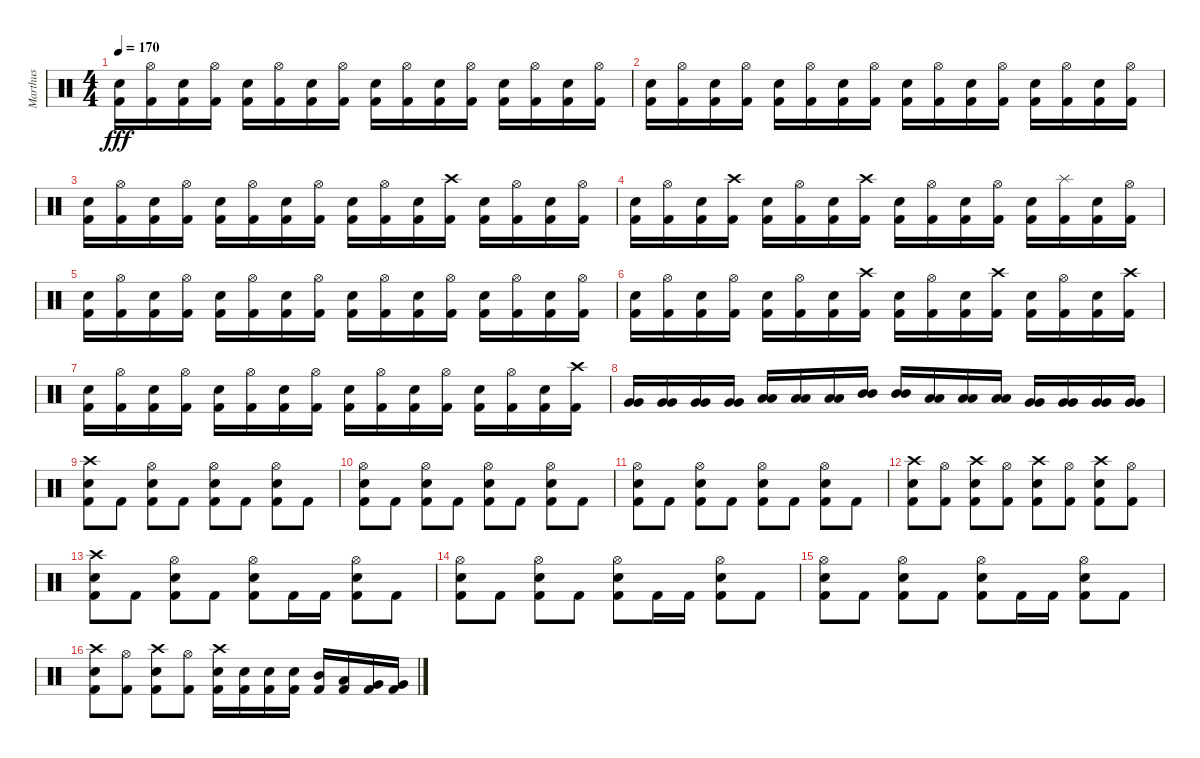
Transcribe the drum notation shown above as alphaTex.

\track ("Marthus" "Marthus") {instrument percussion}
\staff {score}
\articulation defaults
\ts (4 4)
\tempo 170
\clef neutral
\ks c
("Electric Snare (hit)" "Kick (hit) 2").16{dy fff} ("Hi-Hat (open)" "Kick (hit) 2").16 ("Electric Snare (hit)" "Kick (hit) 2").16 ("Hi-Hat (open)" "Kick (hit) 2").16 ("Electric Snare (hit)" "Kick (hit) 2").16 ("Hi-Hat (open)" "Kick (hit) 2").16 ("Electric Snare (hit)" "Kick (hit) 2").16 ("Hi-Hat (open)" "Kick (hit) 2").16 ("Electric Snare (hit)" "Kick (hit) 2").16 ("Hi-Hat (open)" "Kick (hit) 2").16 ("Electric Snare (hit)" "Kick (hit) 2").16 ("Hi-Hat (open)" "Kick (hit) 2").16 ("Electric Snare (hit)" "Kick (hit) 2").16 ("Hi-Hat (open)" "Kick (hit) 2").16 ("Electric Snare (hit)" "Kick (hit) 2").16 ("Hi-Hat (open)" "Kick (hit) 2").16 |
("Electric Snare (hit)" "Kick (hit) 2").16 ("Hi-Hat (open)" "Kick (hit) 2").16 ("Electric Snare (hit)" "Kick (hit) 2").16 ("Hi-Hat (open)" "Kick (hit) 2").16 ("Electric Snare (hit)" "Kick (hit) 2").16 ("Hi-Hat (open)" "Kick (hit) 2").16 ("Electric Snare (hit)" "Kick (hit) 2").16 ("Hi-Hat (open)" "Kick (hit) 2").16 ("Electric Snare (hit)" "Kick (hit) 2").16 ("Hi-Hat (open)" "Kick (hit) 2").16 ("Electric Snare (hit)" "Kick (hit) 2").16 ("Hi-Hat (open)" "Kick (hit) 2").16 ("Electric Snare (hit)" "Kick (hit) 2").16 ("Hi-Hat (open)" "Kick (hit) 2").16 ("Electric Snare (hit)" "Kick (hit) 2").16 ("Hi-Hat (open)" "Kick (hit) 2").16 |
("Electric Snare (hit)" "Kick (hit) 2").16 ("Hi-Hat (open)" "Kick (hit) 2").16 ("Electric Snare (hit)" "Kick (hit) 2").16 ("Hi-Hat (open)" "Kick (hit) 2").16 ("Electric Snare (hit)" "Kick (hit) 2").16 ("Hi-Hat (open)" "Kick (hit) 2").16 ("Electric Snare (hit)" "Kick (hit) 2").16 ("Hi-Hat (open)" "Kick (hit) 2").16 ("Electric Snare (hit)" "Kick (hit) 2").16 ("Hi-Hat (open)" "Kick (hit) 2").16 ("Electric Snare (hit)" "Kick (hit) 2").16 ("Crash high (hit)" "Kick (hit) 2").16 ("Electric Snare (hit)" "Kick (hit) 2").16 ("Hi-Hat (open)" "Kick (hit) 2").16 ("Electric Snare (hit)" "Kick (hit) 2").16 ("Hi-Hat (open)" "Kick (hit) 2").16 |
("Electric Snare (hit)" "Kick (hit) 2").16 ("Hi-Hat (open)" "Kick (hit) 2").16 ("Electric Snare (hit)" "Kick (hit) 2").16 ("Crash high (hit)" "Kick (hit) 2").16 ("Electric Snare (hit)" "Kick (hit) 2").16 ("Hi-Hat (open)" "Kick (hit) 2").16 ("Electric Snare (hit)" "Kick (hit) 2").16 ("Crash high (hit)" "Kick (hit) 2").16 ("Electric Snare (hit)" "Kick (hit) 2").16 ("Hi-Hat (open)" "Kick (hit) 2").16 ("Electric Snare (hit)" "Kick (hit) 2").16 ("Hi-Hat (open)" "Kick (hit) 2").16 ("Electric Snare (hit)" "Kick (hit) 2").16 ("Splash (hit)" "Kick (hit) 2").16 ("Electric Snare (hit)" "Kick (hit) 2").16 ("Hi-Hat (open)" "Kick (hit) 2").16 |
("Electric Snare (hit)" "Kick (hit) 2").16 ("Hi-Hat (open)" "Kick (hit) 2").16 ("Electric Snare (hit)" "Kick (hit) 2").16 ("Hi-Hat (open)" "Kick (hit) 2").16 ("Electric Snare (hit)" "Kick (hit) 2").16 ("Hi-Hat (open)" "Kick (hit) 2").16 ("Electric Snare (hit)" "Kick (hit) 2").16 ("Hi-Hat (open)" "Kick (hit) 2").16 ("Electric Snare (hit)" "Kick (hit) 2").16 ("Hi-Hat (open)" "Kick (hit) 2").16 ("Electric Snare (hit)" "Kick (hit) 2").16 ("Hi-Hat (open)" "Kick (hit) 2").16 ("Electric Snare (hit)" "Kick (hit) 2").16 ("Hi-Hat (open)" "Kick (hit) 2").16 ("Electric Snare (hit)" "Kick (hit) 2").16 ("Hi-Hat (open)" "Kick (hit) 2").16 |
("Electric Snare (hit)" "Kick (hit) 2").16 ("Hi-Hat (open)" "Kick (hit) 2").16 ("Electric Snare (hit)" "Kick (hit) 2").16 ("Hi-Hat (open)" "Kick (hit) 2").16 ("Electric Snare (hit)" "Kick (hit) 2").16 ("Hi-Hat (open)" "Kick (hit) 2").16 ("Electric Snare (hit)" "Kick (hit) 2").16 ("Crash high (hit)" "Kick (hit) 2").16 ("Electric Snare (hit)" "Kick (hit) 2").16 ("Hi-Hat (open)" "Kick (hit) 2").16 ("Electric Snare (hit)" "Kick (hit) 2").16 ("Crash high (hit)" "Kick (hit) 2").16 ("Electric Snare (hit)" "Kick (hit) 2").16 ("Hi-Hat (open)" "Kick (hit) 2").16 ("Electric Snare (hit)" "Kick (hit) 2").16 ("Crash high (hit)" "Kick (hit) 2").16 |
("Electric Snare (hit)" "Kick (hit) 2").16 ("Hi-Hat (open)" "Kick (hit) 2").16 ("Electric Snare (hit)" "Kick (hit) 2").16 ("Hi-Hat (open)" "Kick (hit) 2").16 ("Electric Snare (hit)" "Kick (hit) 2").16 ("Hi-Hat (open)" "Kick (hit) 2").16 ("Electric Snare (hit)" "Kick (hit) 2").16 ("Hi-Hat (open)" "Kick (hit) 2").16 ("Electric Snare (hit)" "Kick (hit) 2").16 ("Hi-Hat (open)" "Kick (hit) 2").16 ("Electric Snare (hit)" "Kick (hit) 2").16 ("Hi-Hat (open)" "Kick (hit) 2").16 ("Electric Snare (hit)" "Kick (hit) 2").16 ("Hi-Hat (open)" "Kick (hit) 2").16 ("Electric Snare (hit)" "Kick (hit) 2").16 ("Crash high (hit)" "Kick (hit) 2").16 |
("Very Low Tom (hit)" "Very Low Tom (hit)").16 ("Very Low Tom (hit)" "Very Low Tom (hit)").16 ("Very Low Tom (hit)" "Very Low Tom (hit)").16 ("Very Low Tom (hit)" "Very Low Tom (hit)").16 ("Low Tom (hit)" "Low Tom (hit)").16 ("Low Tom (hit)" "Low Tom (hit)").16 ("Low Tom (hit)" "Low Tom (hit)").16 ("Mid Tom (hit)" "Mid Tom (hit)").16 ("Mid Tom (hit)" "Mid Tom (hit)").16 ("Low Tom (hit)" "Low Tom (hit)").16 ("Low Tom (hit)" "Low Tom (hit)").16 ("Low Tom (hit)" "Low Tom (hit)").16 ("Very Low Tom (hit)" "Very Low Tom (hit)").16 ("Very Low Tom (hit)" "Very Low Tom (hit)").16 ("Very Low Tom (hit)" "Very Low Tom (hit)").16 ("Very Low Tom (hit)" "Very Low Tom (hit)").16 |
("Crash high (hit)" "Electric Snare (hit)" "Kick (hit) 2").8 "Kick (hit) 2".8 ("Hi-Hat (open)" "Electric Snare (hit)" "Kick (hit) 2").8 "Kick (hit) 2".8 ("Hi-Hat (open)" "Electric Snare (hit)" "Kick (hit) 2").8 "Kick (hit) 2".8 ("Hi-Hat (open)" "Electric Snare (hit)" "Kick (hit) 2").8 "Kick (hit) 2".8 |
("Hi-Hat (open)" "Electric Snare (hit)" "Kick (hit) 2").8 "Kick (hit) 2".8 ("Hi-Hat (open)" "Electric Snare (hit)" "Kick (hit) 2").8 "Kick (hit) 2".8 ("Hi-Hat (open)" "Electric Snare (hit)" "Kick (hit) 2").8 "Kick (hit) 2".8 ("Hi-Hat (open)" "Electric Snare (hit)" "Kick (hit) 2").8 "Kick (hit) 2".8 |
("Hi-Hat (open)" "Electric Snare (hit)" "Kick (hit) 2").8 "Kick (hit) 2".8 ("Hi-Hat (open)" "Electric Snare (hit)" "Kick (hit) 2").8 "Kick (hit) 2".8 ("Hi-Hat (open)" "Electric Snare (hit)" "Kick (hit) 2").8 "Kick (hit) 2".8 ("Hi-Hat (open)" "Electric Snare (hit)" "Kick (hit) 2").8 "Kick (hit) 2".8 |
("Crash high (hit)" "Electric Snare (hit)" "Kick (hit) 2").8 ("Hi-Hat (open)" "Kick (hit) 2").8 ("Crash high (hit)" "Electric Snare (hit)" "Kick (hit) 2").8 ("Hi-Hat (open)" "Kick (hit) 2").8 ("Crash high (hit)" "Electric Snare (hit)" "Kick (hit) 2").8 ("Hi-Hat (open)" "Kick (hit) 2").8 ("Crash high (hit)" "Electric Snare (hit)" "Kick (hit) 2").8 ("Hi-Hat (open)" "Kick (hit) 2").8 |
("Crash high (hit)" "Electric Snare (hit)" "Kick (hit) 2").8 "Kick (hit) 2".8 ("Hi-Hat (open)" "Electric Snare (hit)" "Kick (hit) 2").8 "Kick (hit) 2".8 ("Hi-Hat (open)" "Electric Snare (hit)" "Kick (hit) 2").8 "Kick (hit) 2".16 "Kick (hit) 2".16 ("Hi-Hat (open)" "Electric Snare (hit)" "Kick (hit) 2").8 "Kick (hit) 2".8 |
("Hi-Hat (open)" "Electric Snare (hit)" "Kick (hit) 2").8 "Kick (hit) 2".8 ("Hi-Hat (open)" "Electric Snare (hit)" "Kick (hit) 2").8 "Kick (hit) 2".8 ("Hi-Hat (open)" "Electric Snare (hit)" "Kick (hit) 2").8 "Kick (hit) 2".16 "Kick (hit) 2".16 ("Hi-Hat (open)" "Electric Snare (hit)" "Kick (hit) 2").8 "Kick (hit) 2".8 |
("Hi-Hat (open)" "Electric Snare (hit)" "Kick (hit) 2").8 "Kick (hit) 2".8 ("Hi-Hat (open)" "Electric Snare (hit)" "Kick (hit) 2").8 "Kick (hit) 2".8 ("Hi-Hat (open)" "Electric Snare (hit)" "Kick (hit) 2").8 "Kick (hit) 2".16 "Kick (hit) 2".16 ("Hi-Hat (open)" "Electric Snare (hit)" "Kick (hit) 2").8 "Kick (hit) 2".8 |
("Crash high (hit)" "Electric Snare (hit)" "Kick (hit) 2").8 ("Hi-Hat (open)" "Kick (hit) 2").8 ("Crash high (hit)" "Electric Snare (hit)" "Kick (hit) 2").8 ("Hi-Hat (open)" "Kick (hit) 2").8 ("Crash high (hit)" "Electric Snare (hit)" "Kick (hit) 2").16 ("Electric Snare (hit)" "Kick (hit) 2").16 ("Electric Snare (hit)" "Kick (hit) 2").16 ("Electric Snare (hit)" "Kick (hit) 2").16 ("Mid Tom (hit)" "Kick (hit) 2").16 ("Low Tom (hit)" "Kick (hit) 2").16 ("Very Low Tom (hit)" "Kick (hit) 2").16 ("Very Low Tom (hit)" "Kick (hit) 2").16
